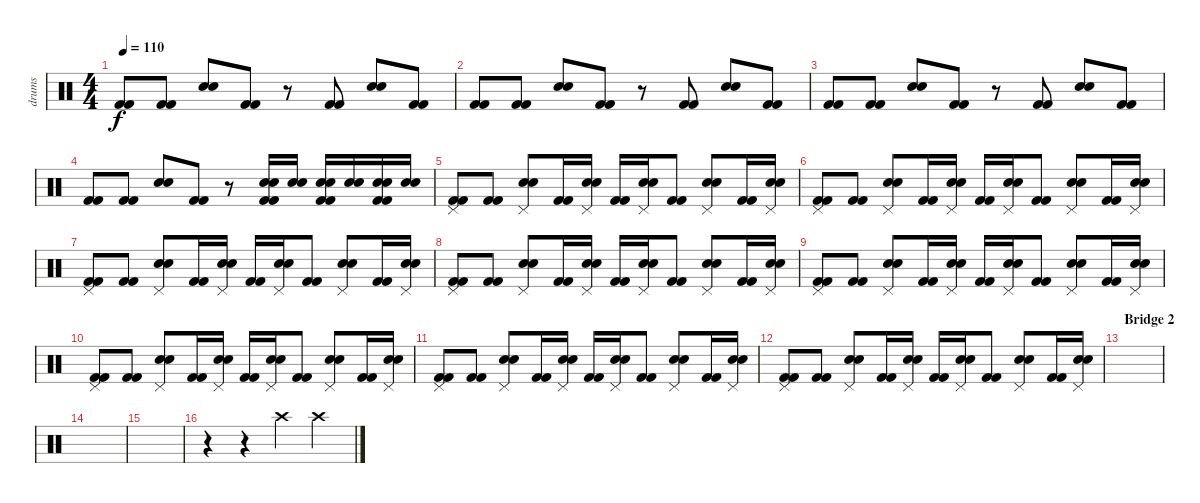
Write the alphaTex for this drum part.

\track ("drums" "drums") {instrument percussion}
\staff {score}
\articulation defaults
\ts (4 4)
\tempo 110
\clef neutral
\ks c
("Kick (hit) 2" "Kick (hit) 2").8{dy f} ("Kick (hit) 2" "Kick (hit) 2").8 ("Snare (hit) 2" "Snare (hit) 2").8 ("Kick (hit) 2" "Kick (hit) 2").8 r.8 ("Kick (hit) 2" "Kick (hit) 2").8 ("Snare (hit) 2" "Snare (hit) 2").8 ("Kick (hit) 2" "Kick (hit) 2").8 |
("Kick (hit) 2" "Kick (hit) 2").8 ("Kick (hit) 2" "Kick (hit) 2").8 ("Snare (hit) 2" "Snare (hit) 2").8 ("Kick (hit) 2" "Kick (hit) 2").8 r.8 ("Kick (hit) 2" "Kick (hit) 2").8 ("Snare (hit) 2" "Snare (hit) 2").8 ("Kick (hit) 2" "Kick (hit) 2").8 |
("Kick (hit) 2" "Kick (hit) 2").8 ("Kick (hit) 2" "Kick (hit) 2").8 ("Snare (hit) 2" "Snare (hit) 2").8 ("Kick (hit) 2" "Kick (hit) 2").8 r.8 ("Kick (hit) 2" "Kick (hit) 2").8 ("Snare (hit) 2" "Snare (hit) 2").8 ("Kick (hit) 2" "Kick (hit) 2").8 |
("Kick (hit) 2" "Kick (hit) 2").8 ("Kick (hit) 2" "Kick (hit) 2").8 ("Snare (hit) 2" "Snare (hit) 2").8 ("Kick (hit) 2" "Kick (hit) 2").8 r.8 ("Snare (hit) 2" "Snare (hit) 2" "Kick (hit) 2" "Kick (hit) 2").16 ("Snare (hit) 2" "Snare (hit) 2").16 ("Snare (hit) 2" "Snare (hit) 2" "Kick (hit) 2" "Kick (hit) 2").16 ("Snare (hit) 2" "Snare (hit) 2").16 ("Snare (hit) 2" "Snare (hit) 2" "Kick (hit) 2" "Kick (hit) 2").16 ("Snare (hit) 2" "Snare (hit) 2").16 |
("Pedal Hi-Hat (hit)" "Kick (hit) 2" "Kick (hit) 2").8 ("Kick (hit) 2" "Kick (hit) 2").8 ("Snare (hit) 2" "Snare (hit) 2" "Pedal Hi-Hat (hit)").8 ("Kick (hit) 2" "Kick (hit) 2").16 ("Snare (hit) 2" "Snare (hit) 2" "Pedal Hi-Hat (hit)").16 ("Kick (hit) 2" "Kick (hit) 2").16 ("Snare (hit) 2" "Snare (hit) 2" "Pedal Hi-Hat (hit)").16 ("Kick (hit) 2" "Kick (hit) 2").8 ("Snare (hit) 2" "Snare (hit) 2" "Pedal Hi-Hat (hit)").8 ("Kick (hit) 2" "Kick (hit) 2").16 ("Snare (hit) 2" "Snare (hit) 2" "Pedal Hi-Hat (hit)").16 |
("Pedal Hi-Hat (hit)" "Kick (hit) 2" "Kick (hit) 2").8 ("Kick (hit) 2" "Kick (hit) 2").8 ("Snare (hit) 2" "Snare (hit) 2" "Pedal Hi-Hat (hit)").8 ("Kick (hit) 2" "Kick (hit) 2").16 ("Snare (hit) 2" "Snare (hit) 2" "Pedal Hi-Hat (hit)").16 ("Kick (hit) 2" "Kick (hit) 2").16 ("Snare (hit) 2" "Snare (hit) 2" "Pedal Hi-Hat (hit)").16 ("Kick (hit) 2" "Kick (hit) 2").8 ("Snare (hit) 2" "Snare (hit) 2" "Pedal Hi-Hat (hit)").8 ("Kick (hit) 2" "Kick (hit) 2").16 ("Snare (hit) 2" "Snare (hit) 2" "Pedal Hi-Hat (hit)").16 |
("Pedal Hi-Hat (hit)" "Kick (hit) 2" "Kick (hit) 2").8 ("Kick (hit) 2" "Kick (hit) 2").8 ("Snare (hit) 2" "Snare (hit) 2" "Pedal Hi-Hat (hit)").8 ("Kick (hit) 2" "Kick (hit) 2").16 ("Snare (hit) 2" "Snare (hit) 2" "Pedal Hi-Hat (hit)").16 ("Kick (hit) 2" "Kick (hit) 2").16 ("Snare (hit) 2" "Snare (hit) 2" "Pedal Hi-Hat (hit)").16 ("Kick (hit) 2" "Kick (hit) 2").8 ("Snare (hit) 2" "Snare (hit) 2" "Pedal Hi-Hat (hit)").8 ("Kick (hit) 2" "Kick (hit) 2").16 ("Snare (hit) 2" "Snare (hit) 2" "Pedal Hi-Hat (hit)").16 |
("Pedal Hi-Hat (hit)" "Kick (hit) 2" "Kick (hit) 2").8 ("Kick (hit) 2" "Kick (hit) 2").8 ("Snare (hit) 2" "Snare (hit) 2" "Pedal Hi-Hat (hit)").8 ("Kick (hit) 2" "Kick (hit) 2").16 ("Snare (hit) 2" "Snare (hit) 2" "Pedal Hi-Hat (hit)").16 ("Kick (hit) 2" "Kick (hit) 2").16 ("Snare (hit) 2" "Snare (hit) 2" "Pedal Hi-Hat (hit)").16 ("Kick (hit) 2" "Kick (hit) 2").8 ("Snare (hit) 2" "Snare (hit) 2" "Pedal Hi-Hat (hit)").8 ("Kick (hit) 2" "Kick (hit) 2").16 ("Snare (hit) 2" "Snare (hit) 2" "Pedal Hi-Hat (hit)").16 |
("Pedal Hi-Hat (hit)" "Kick (hit) 2" "Kick (hit) 2").8 ("Kick (hit) 2" "Kick (hit) 2").8 ("Snare (hit) 2" "Snare (hit) 2" "Pedal Hi-Hat (hit)").8 ("Kick (hit) 2" "Kick (hit) 2").16 ("Snare (hit) 2" "Snare (hit) 2" "Pedal Hi-Hat (hit)").16 ("Kick (hit) 2" "Kick (hit) 2").16 ("Snare (hit) 2" "Snare (hit) 2" "Pedal Hi-Hat (hit)").16 ("Kick (hit) 2" "Kick (hit) 2").8 ("Snare (hit) 2" "Snare (hit) 2" "Pedal Hi-Hat (hit)").8 ("Kick (hit) 2" "Kick (hit) 2").16 ("Snare (hit) 2" "Snare (hit) 2" "Pedal Hi-Hat (hit)").16 |
("Pedal Hi-Hat (hit)" "Kick (hit) 2" "Kick (hit) 2").8 ("Kick (hit) 2" "Kick (hit) 2").8 ("Snare (hit) 2" "Snare (hit) 2" "Pedal Hi-Hat (hit)").8 ("Kick (hit) 2" "Kick (hit) 2").16 ("Snare (hit) 2" "Snare (hit) 2" "Pedal Hi-Hat (hit)").16 ("Kick (hit) 2" "Kick (hit) 2").16 ("Snare (hit) 2" "Snare (hit) 2" "Pedal Hi-Hat (hit)").16 ("Kick (hit) 2" "Kick (hit) 2").8 ("Snare (hit) 2" "Snare (hit) 2" "Pedal Hi-Hat (hit)").8 ("Kick (hit) 2" "Kick (hit) 2").16 ("Snare (hit) 2" "Snare (hit) 2" "Pedal Hi-Hat (hit)").16 |
("Pedal Hi-Hat (hit)" "Kick (hit) 2" "Kick (hit) 2").8 ("Kick (hit) 2" "Kick (hit) 2").8 ("Snare (hit) 2" "Snare (hit) 2" "Pedal Hi-Hat (hit)").8 ("Kick (hit) 2" "Kick (hit) 2").16 ("Snare (hit) 2" "Snare (hit) 2" "Pedal Hi-Hat (hit)").16 ("Kick (hit) 2" "Kick (hit) 2").16 ("Snare (hit) 2" "Snare (hit) 2" "Pedal Hi-Hat (hit)").16 ("Kick (hit) 2" "Kick (hit) 2").8 ("Snare (hit) 2" "Snare (hit) 2" "Pedal Hi-Hat (hit)").8 ("Kick (hit) 2" "Kick (hit) 2").16 ("Snare (hit) 2" "Snare (hit) 2" "Pedal Hi-Hat (hit)").16 |
("Pedal Hi-Hat (hit)" "Kick (hit) 2" "Kick (hit) 2").8 ("Kick (hit) 2" "Kick (hit) 2").8 ("Snare (hit) 2" "Snare (hit) 2" "Pedal Hi-Hat (hit)").8 ("Kick (hit) 2" "Kick (hit) 2").16 ("Snare (hit) 2" "Snare (hit) 2" "Pedal Hi-Hat (hit)").16 ("Kick (hit) 2" "Kick (hit) 2").16 ("Snare (hit) 2" "Snare (hit) 2" "Pedal Hi-Hat (hit)").16 ("Kick (hit) 2" "Kick (hit) 2").8 ("Snare (hit) 2" "Snare (hit) 2" "Pedal Hi-Hat (hit)").8 ("Kick (hit) 2" "Kick (hit) 2").16 ("Snare (hit) 2" "Snare (hit) 2" "Pedal Hi-Hat (hit)").16 |
\section ("" "Bridge 2")
|
|
|
r.4{volume 7} r.4 "Crash high (hit)".4 "Crash high (hit)".4
